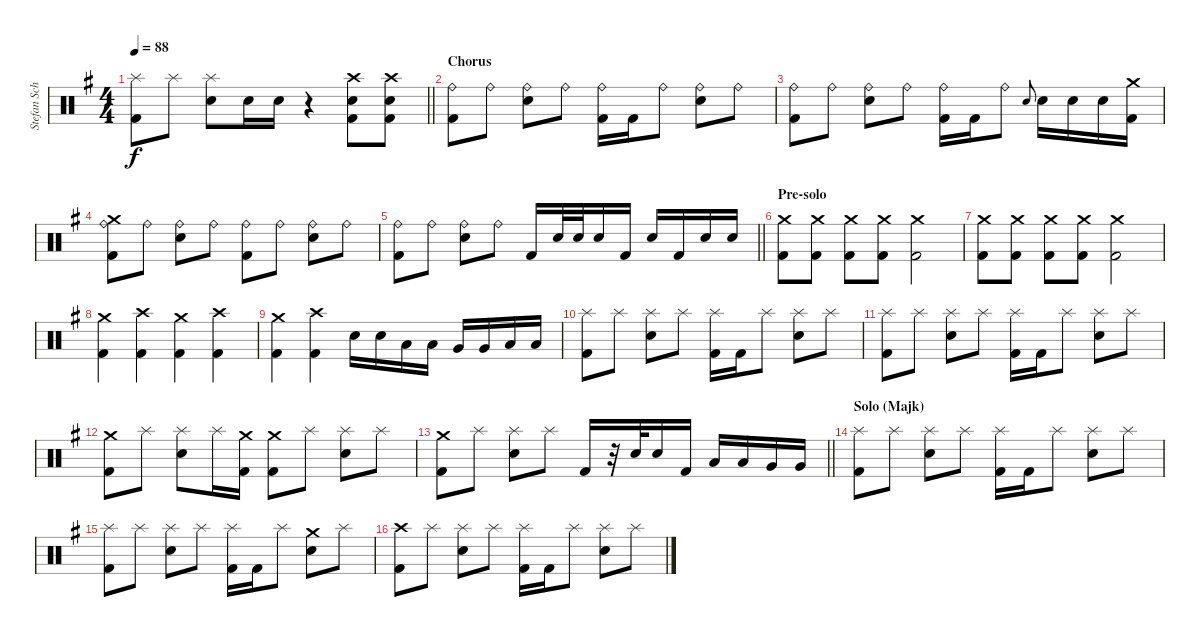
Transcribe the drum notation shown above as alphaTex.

\track ("Stefan Schwarzmann" "Stefan Sch") {instrument percussion}
\staff {score}
\articulation defaults
\ts (4 4)
\tempo 88
\clef neutral
\barLineRight lightlight
\ks eminor
("Splash (hit)" "Kick (hit) 2").8{dy f} "Splash (hit)".8 ("Splash (hit)" "Snare (hit) 2").8 "Snare (hit) 2".16 "Snare (hit) 2".16 r.4 ("Crash high (hit)" "Snare (hit) 2" "Kick (hit) 2").8 ("Crash high (hit)" "Snare (hit) 2" "Kick (hit) 2").8 |
\section ("" "Chorus")
("Ride (bell)" "Kick (hit) 2").8 "Ride (bell)".8 ("Ride (bell)" "Snare (hit) 2").8 "Ride (bell)".8 ("Ride (bell)" "Kick (hit) 2").16 "Kick (hit) 2".16 "Ride (bell)".8 ("Ride (bell)" "Snare (hit) 2").8 "Ride (bell)".8 |
("Ride (bell)" "Kick (hit) 2").8 "Ride (bell)".8 ("Ride (bell)" "Snare (hit) 2").8 "Ride (bell)".8 ("Ride (bell)" "Kick (hit) 2").16 "Kick (hit) 2".16 "Ride (bell)".8 "Snare (hit) 2".8{gr onbeat} "Snare (hit) 2".16 "Snare (hit) 2".16 "Snare (hit) 2".16 ("Crash medium (hit)" "Kick (hit) 2").16 |
("Crash medium (hit)" "Ride (bell)" "Kick (hit) 2").8 "Ride (bell)".8 ("Ride (bell)" "Snare (hit) 2").8 "Ride (bell)".8 ("Ride (bell)" "Kick (hit) 2").8 "Ride (bell)".8 ("Ride (bell)" "Snare (hit) 2").8 "Ride (bell)".8 |
\barLineRight lightlight
("Ride (bell)" "Kick (hit) 2").8 "Ride (bell)".8 ("Ride (bell)" "Snare (hit) 2").8 "Ride (bell)".8 "Kick (hit) 2".16 "Snare (hit) 2".32 "Snare (hit) 2".32 "Snare (hit) 2".16 "Kick (hit) 2".16 "Snare (hit) 2".16 "Kick (hit) 2".16 "Snare (hit) 2".16 "Snare (hit) 2".16 |
\section ("" "Pre-solo")
("Crash medium (hit)" "Kick (hit) 2").8 ("Crash medium (hit)" "Kick (hit) 2").8 ("Crash medium (hit)" "Kick (hit) 2").8 ("Crash medium (hit)" "Kick (hit) 2").8 ("Crash medium (hit)" "Kick (hit) 2").2 |
("Crash medium (hit)" "Kick (hit) 2").8 ("Crash medium (hit)" "Kick (hit) 2").8 ("Crash medium (hit)" "Kick (hit) 2").8 ("Crash medium (hit)" "Kick (hit) 2").8 ("Crash medium (hit)" "Kick (hit) 2").2 |
("Crash medium (hit)" "Kick (hit) 2").4 ("Crash high (hit)" "Kick (hit) 2").4 ("Crash medium (hit)" "Kick (hit) 2").4 ("Crash high (hit)" "Kick (hit) 2").4 |
("Crash medium (hit)" "Kick (hit) 2").4 ("Crash high (hit)" "Kick (hit) 2").4 "Snare (hit) 2".16 "Snare (hit) 2".16 "Low Tom (hit)".16 "Low Tom (hit)".16 "Very Low Tom (hit)".16 "Very Low Tom (hit)".16 "Low Floor Tom (hit)".16 "Low Floor Tom (hit)".16 |
("Splash (hit)" "Kick (hit) 2").8 "Splash (hit)".8 ("Splash (hit)" "Snare (hit) 2").8 "Splash (hit)".8 ("Splash (hit)" "Kick (hit) 2").16 "Kick (hit) 2".16 "Splash (hit)".8 ("Splash (hit)" "Snare (hit) 2").8 "Splash (hit)".8 |
("Splash (hit)" "Kick (hit) 2").8 "Splash (hit)".8 ("Splash (hit)" "Snare (hit) 2").8 "Splash (hit)".8 ("Splash (hit)" "Kick (hit) 2").16 "Kick (hit) 2".16 "Splash (hit)".8 ("Splash (hit)" "Snare (hit) 2").8 "Splash (hit)".8 |
("Crash medium (hit)" "Kick (hit) 2").8 "Splash (hit)".8 ("Splash (hit)" "Snare (hit) 2").8 "Splash (hit)".16 ("Crash medium (hit)" "Kick (hit) 2").16 ("Crash medium (hit)" "Kick (hit) 2").8 "Splash (hit)".8 ("Splash (hit)" "Snare (hit) 2").8 "Splash (hit)".8 |
\barLineRight lightlight
("Crash medium (hit)" "Kick (hit) 2").8 "Splash (hit)".8 ("Splash (hit)" "Snare (hit) 2").8 "Splash (hit)".8 "Kick (hit) 2".16 r.32 "Snare (hit) 2".32 "Snare (hit) 2".16 "Kick (hit) 2".16 "Low Tom (hit)".16 "Low Tom (hit)".16 "Very Low Tom (hit)".16 "Very Low Tom (hit)".16 |
\section ("" "Solo (Majk)")
("Splash (hit)" "Kick (hit) 2").8 "Splash (hit)".8 ("Splash (hit)" "Snare (hit) 2").8 "Splash (hit)".8 ("Splash (hit)" "Kick (hit) 2").16 "Kick (hit) 2".16 "Splash (hit)".8 ("Splash (hit)" "Snare (hit) 2").8 "Splash (hit)".8 |
("Splash (hit)" "Kick (hit) 2").8 "Splash (hit)".8 ("Splash (hit)" "Snare (hit) 2").8 "Splash (hit)".8 ("Splash (hit)" "Kick (hit) 2").16 "Kick (hit) 2".16 "Splash (hit)".8 ("Crash medium (hit)" "Snare (hit) 2").8 "Splash (hit)".8 |
("Crash high (hit)" "Kick (hit) 2").8 "Splash (hit)".8 ("Splash (hit)" "Snare (hit) 2").8 "Splash (hit)".8 ("Splash (hit)" "Kick (hit) 2").16 "Kick (hit) 2".16 "Splash (hit)".8 ("Splash (hit)" "Snare (hit) 2").8 "Splash (hit)".8
